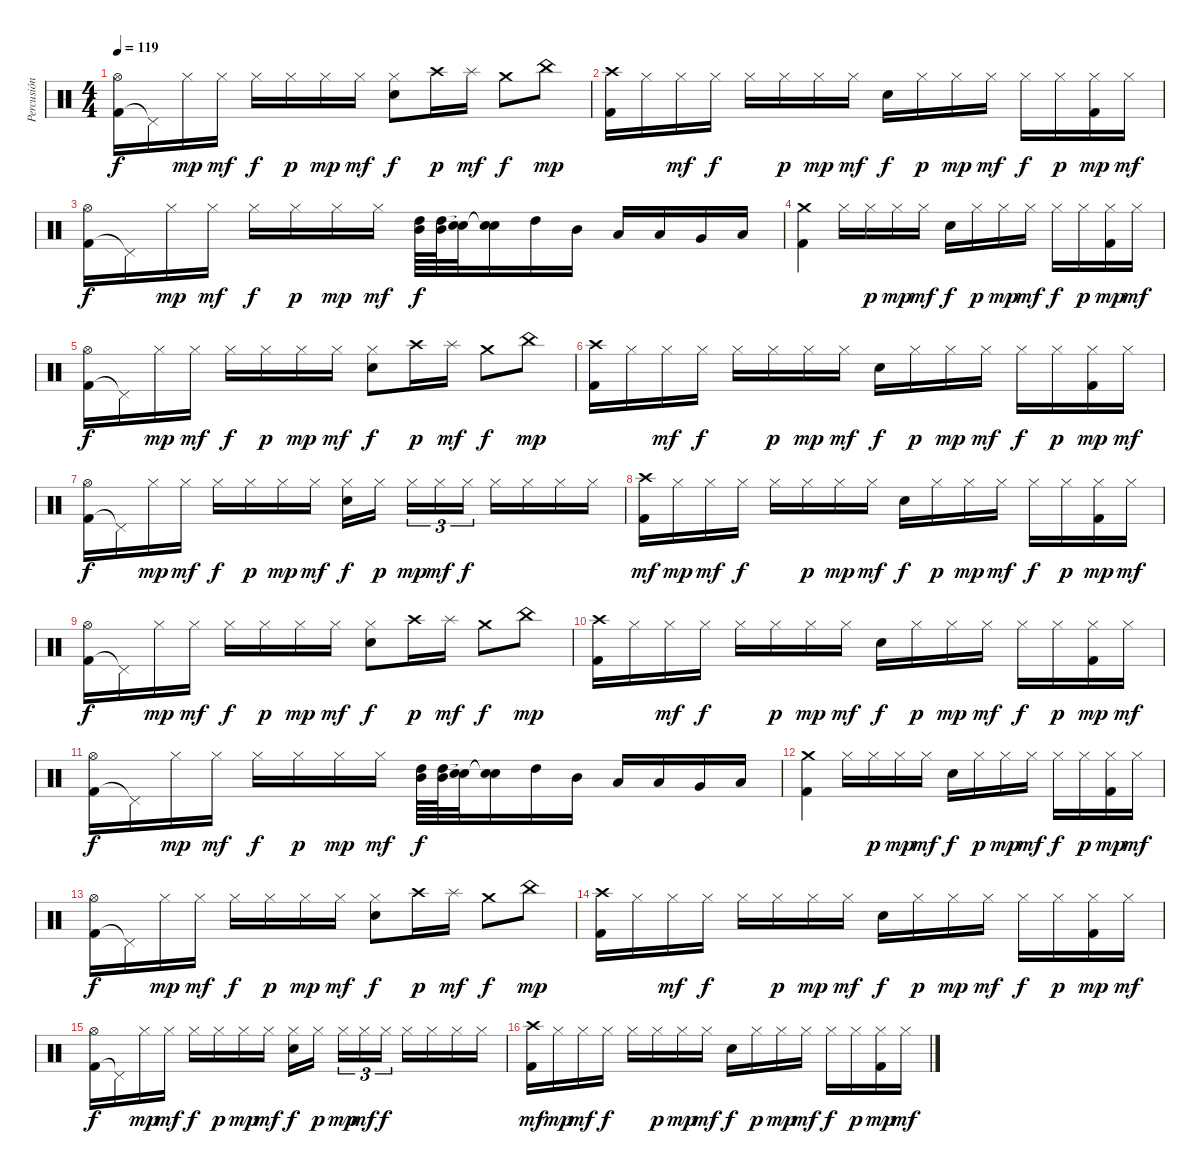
\track ("Percusión" "Percusión") {mute instrument percussion}
\staff {score}
\articulation defaults
\ts (4 4)
\tempo 119
\clef neutral
\ks c
("Kick (hit) 2" "Hi-Hat (open)").16{dy f} "Pedal Hi-Hat (hit)"{t}.16 "Hi-Hat (closed)".16{dy mp} "Hi-Hat (closed)".16{dy mf} "Hi-Hat (closed)".16{dy f} "Hi-Hat (closed)".16{dy p} "Hi-Hat (closed)".16{dy mp} "Hi-Hat (closed)".16{dy mf} ("Hi-Hat (closed)" "Snare (hit) 2").8{dy f} "Crash high (hit)".16{dy p} "Splash (hit)".16{dy mf} "Crash medium (hit)".8{dy f} "China (hit)".8{dy mp} |
("Kick (hit) 2" "Crash high (hit)").16 "Hi-Hat (closed)".16 "Hi-Hat (closed)".16{dy mf} "Hi-Hat (closed)".16{dy f} "Hi-Hat (closed)".16 "Hi-Hat (closed)".16{dy p} "Hi-Hat (closed)".16{dy mp} "Hi-Hat (closed)".16{dy mf} "Snare (hit) 2".16{dy f} "Hi-Hat (closed)".16{dy p} "Hi-Hat (closed)".16{dy mp} "Hi-Hat (closed)".16{dy mf} "Hi-Hat (closed)".16{dy f} "Hi-Hat (closed)".16{dy p} ("Kick (hit) 2" "Hi-Hat (closed)").16{dy mp} "Hi-Hat (closed)".16{dy mf} |
("Kick (hit) 2" "Hi-Hat (open)").16{dy f} "Pedal Hi-Hat (hit)"{t}.16 "Hi-Hat (closed)".16{dy mp} "Hi-Hat (closed)".16{dy mf} "Hi-Hat (closed)".16{dy f} "Hi-Hat (closed)".16{dy p} "Hi-Hat (closed)".16{dy mp} "Hi-Hat (closed)".16{dy mf} ("High Tom (hit)" "Mid Tom (hit)").64{dy f} ("High Tom (hit)" "Mid Tom (hit)").64 ("Snare (hit)"{t} "Snare (hit)"{t}).32 ("Snare (hit)"{t} "Snare (hit)"{t}).16 "High Tom (hit)".16 "Mid Tom (hit)".16 "Low Tom (hit)".16 "Low Tom (hit)".16 "Very Low Tom (hit)".16 "Low Floor Tom (hit)".16 |
("Kick (hit) 2" "Crash medium (hit)").4 "Hi-Hat (closed)".16 "Hi-Hat (closed)".16{dy p} "Hi-Hat (closed)".16{dy mp} "Hi-Hat (closed)".16{dy mf} "Snare (hit) 2".16{dy f} "Hi-Hat (closed)".16{dy p} "Hi-Hat (closed)".16{dy mp} "Hi-Hat (closed)".16{dy mf} "Hi-Hat (closed)".16{dy f} "Hi-Hat (closed)".16{dy p} ("Kick (hit) 2" "Hi-Hat (closed)").16{dy mp} "Hi-Hat (closed)".16{dy mf} |
("Kick (hit) 2" "Hi-Hat (open)").16{dy f} "Pedal Hi-Hat (hit)"{t}.16 "Hi-Hat (closed)".16{dy mp} "Hi-Hat (closed)".16{dy mf} "Hi-Hat (closed)".16{dy f} "Hi-Hat (closed)".16{dy p} "Hi-Hat (closed)".16{dy mp} "Hi-Hat (closed)".16{dy mf} ("Hi-Hat (closed)" "Snare (hit) 2").8{dy f} "Crash high (hit)".16{dy p} "Splash (hit)".16{dy mf} "Crash medium (hit)".8{dy f} "China (hit)".8{dy mp} |
("Kick (hit) 2" "Crash high (hit)").16 "Hi-Hat (closed)".16 "Hi-Hat (closed)".16{dy mf} "Hi-Hat (closed)".16{dy f} "Hi-Hat (closed)".16 "Hi-Hat (closed)".16{dy p} "Hi-Hat (closed)".16{dy mp} "Hi-Hat (closed)".16{dy mf} "Snare (hit) 2".16{dy f} "Hi-Hat (closed)".16{dy p} "Hi-Hat (closed)".16{dy mp} "Hi-Hat (closed)".16{dy mf} "Hi-Hat (closed)".16{dy f} "Hi-Hat (closed)".16{dy p} ("Kick (hit) 2" "Hi-Hat (closed)").16{dy mp} "Hi-Hat (closed)".16{dy mf} |
("Kick (hit) 2" "Hi-Hat (open)").16{dy f} "Pedal Hi-Hat (hit)"{t}.16 "Hi-Hat (closed)".16{dy mp} "Hi-Hat (closed)".16{dy mf} "Hi-Hat (closed)".16{dy f} "Hi-Hat (closed)".16{dy p} "Hi-Hat (closed)".16{dy mp} "Hi-Hat (closed)".16{dy mf} ("Hi-Hat (closed)" "Snare (hit) 2").16{dy f} "Hi-Hat (closed)".16{dy p beam splitsecondary} "Hi-Hat (closed)".16{tu (3 2) dy mp} "Hi-Hat (closed)".16{tu (3 2) dy mf} "Hi-Hat (closed)".16{tu (3 2) dy f} "Hi-Hat (closed)".16 "Hi-Hat (closed)".16 "Hi-Hat (closed)".16 "Hi-Hat (closed)".16 |
("Kick (hit) 2" "Crash high (hit)").16{dy mf} "Hi-Hat (closed)".16{dy mp} "Hi-Hat (closed)".16{dy mf} "Hi-Hat (closed)".16{dy f} "Hi-Hat (closed)".16 "Hi-Hat (closed)".16{dy p} "Hi-Hat (closed)".16{dy mp} "Hi-Hat (closed)".16{dy mf} "Snare (hit) 2".16{dy f} "Hi-Hat (closed)".16{dy p} "Hi-Hat (closed)".16{dy mp} "Hi-Hat (closed)".16{dy mf} "Hi-Hat (closed)".16{dy f} "Hi-Hat (closed)".16{dy p} ("Kick (hit) 2" "Hi-Hat (closed)").16{dy mp} "Hi-Hat (closed)".16{dy mf} |
("Kick (hit) 2" "Hi-Hat (open)").16{dy f} "Pedal Hi-Hat (hit)"{t}.16 "Hi-Hat (closed)".16{dy mp} "Hi-Hat (closed)".16{dy mf} "Hi-Hat (closed)".16{dy f} "Hi-Hat (closed)".16{dy p} "Hi-Hat (closed)".16{dy mp} "Hi-Hat (closed)".16{dy mf} ("Hi-Hat (closed)" "Snare (hit) 2").8{dy f} "Crash high (hit)".16{dy p} "Splash (hit)".16{dy mf} "Crash medium (hit)".8{dy f} "China (hit)".8{dy mp} |
("Kick (hit) 2" "Crash high (hit)").16 "Hi-Hat (closed)".16 "Hi-Hat (closed)".16{dy mf} "Hi-Hat (closed)".16{dy f} "Hi-Hat (closed)".16 "Hi-Hat (closed)".16{dy p} "Hi-Hat (closed)".16{dy mp} "Hi-Hat (closed)".16{dy mf} "Snare (hit) 2".16{dy f} "Hi-Hat (closed)".16{dy p} "Hi-Hat (closed)".16{dy mp} "Hi-Hat (closed)".16{dy mf} "Hi-Hat (closed)".16{dy f} "Hi-Hat (closed)".16{dy p} ("Kick (hit) 2" "Hi-Hat (closed)").16{dy mp} "Hi-Hat (closed)".16{dy mf} |
("Kick (hit) 2" "Hi-Hat (open)").16{dy f} "Pedal Hi-Hat (hit)"{t}.16 "Hi-Hat (closed)".16{dy mp} "Hi-Hat (closed)".16{dy mf} "Hi-Hat (closed)".16{dy f} "Hi-Hat (closed)".16{dy p} "Hi-Hat (closed)".16{dy mp} "Hi-Hat (closed)".16{dy mf} ("High Tom (hit)" "Mid Tom (hit)").64{dy f} ("High Tom (hit)" "Mid Tom (hit)").64 ("Snare (hit)"{t} "Snare (hit)"{t}).32 ("Snare (hit)"{t} "Snare (hit)"{t}).16 "High Tom (hit)".16 "Mid Tom (hit)".16 "Low Tom (hit)".16 "Low Tom (hit)".16 "Very Low Tom (hit)".16 "Low Floor Tom (hit)".16 |
("Kick (hit) 2" "Crash medium (hit)").4 "Hi-Hat (closed)".16 "Hi-Hat (closed)".16{dy p} "Hi-Hat (closed)".16{dy mp} "Hi-Hat (closed)".16{dy mf} "Snare (hit) 2".16{dy f} "Hi-Hat (closed)".16{dy p} "Hi-Hat (closed)".16{dy mp} "Hi-Hat (closed)".16{dy mf} "Hi-Hat (closed)".16{dy f} "Hi-Hat (closed)".16{dy p} ("Kick (hit) 2" "Hi-Hat (closed)").16{dy mp} "Hi-Hat (closed)".16{dy mf} |
("Kick (hit) 2" "Hi-Hat (open)").16{dy f} "Pedal Hi-Hat (hit)"{t}.16 "Hi-Hat (closed)".16{dy mp} "Hi-Hat (closed)".16{dy mf} "Hi-Hat (closed)".16{dy f} "Hi-Hat (closed)".16{dy p} "Hi-Hat (closed)".16{dy mp} "Hi-Hat (closed)".16{dy mf} ("Hi-Hat (closed)" "Snare (hit) 2").8{dy f} "Crash high (hit)".16{dy p} "Splash (hit)".16{dy mf} "Crash medium (hit)".8{dy f} "China (hit)".8{dy mp} |
("Kick (hit) 2" "Crash high (hit)").16 "Hi-Hat (closed)".16 "Hi-Hat (closed)".16{dy mf} "Hi-Hat (closed)".16{dy f} "Hi-Hat (closed)".16 "Hi-Hat (closed)".16{dy p} "Hi-Hat (closed)".16{dy mp} "Hi-Hat (closed)".16{dy mf} "Snare (hit) 2".16{dy f} "Hi-Hat (closed)".16{dy p} "Hi-Hat (closed)".16{dy mp} "Hi-Hat (closed)".16{dy mf} "Hi-Hat (closed)".16{dy f} "Hi-Hat (closed)".16{dy p} ("Kick (hit) 2" "Hi-Hat (closed)").16{dy mp} "Hi-Hat (closed)".16{dy mf} |
("Kick (hit) 2" "Hi-Hat (open)").16{dy f} "Pedal Hi-Hat (hit)"{t}.16 "Hi-Hat (closed)".16{dy mp} "Hi-Hat (closed)".16{dy mf} "Hi-Hat (closed)".16{dy f} "Hi-Hat (closed)".16{dy p} "Hi-Hat (closed)".16{dy mp} "Hi-Hat (closed)".16{dy mf} ("Hi-Hat (closed)" "Snare (hit) 2").16{dy f} "Hi-Hat (closed)".16{dy p beam splitsecondary} "Hi-Hat (closed)".16{tu (3 2) dy mp} "Hi-Hat (closed)".16{tu (3 2) dy mf} "Hi-Hat (closed)".16{tu (3 2) dy f} "Hi-Hat (closed)".16 "Hi-Hat (closed)".16 "Hi-Hat (closed)".16 "Hi-Hat (closed)".16 |
("Kick (hit) 2" "Crash high (hit)").16{dy mf} "Hi-Hat (closed)".16{dy mp} "Hi-Hat (closed)".16{dy mf} "Hi-Hat (closed)".16{dy f} "Hi-Hat (closed)".16 "Hi-Hat (closed)".16{dy p} "Hi-Hat (closed)".16{dy mp} "Hi-Hat (closed)".16{dy mf} "Snare (hit) 2".16{dy f} "Hi-Hat (closed)".16{dy p} "Hi-Hat (closed)".16{dy mp} "Hi-Hat (closed)".16{dy mf} "Hi-Hat (closed)".16{dy f} "Hi-Hat (closed)".16{dy p} ("Kick (hit) 2" "Hi-Hat (closed)").16{dy mp} "Hi-Hat (closed)".16{dy mf}
